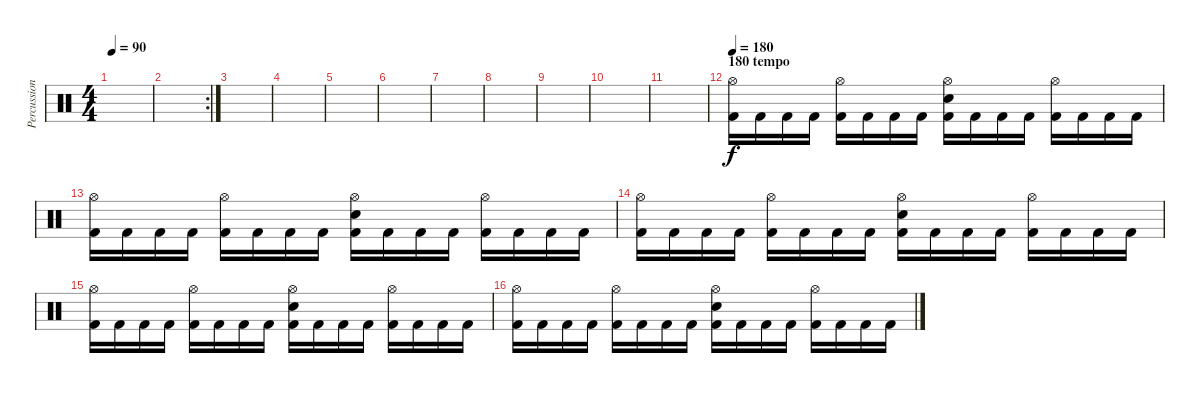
\track ("Percussion" "Percussion") {instrument percussion}
\staff {score}
\articulation defaults
\ts (4 4)
\tempo 90
\clef neutral
\ks c
|
\rc 2
|
|
|
|
|
|
|
|
|
|
\section ("" "180 tempo")
\tempo 180
("Hi-Hat (open)" "Kick (hit) 2").16 "Kick (hit) 2".16 "Kick (hit) 2".16 "Kick (hit) 2".16 ("Hi-Hat (open)" "Kick (hit) 2").16 "Kick (hit) 2".16 "Kick (hit) 2".16 "Kick (hit) 2".16 ("Hi-Hat (open)" "Electric Snare (hit)" "Kick (hit) 2").16 "Kick (hit) 2".16 "Kick (hit) 2".16 "Kick (hit) 2".16 ("Hi-Hat (open)" "Kick (hit) 2").16 "Kick (hit) 2".16 "Kick (hit) 2".16 "Kick (hit) 2".16 |
("Hi-Hat (open)" "Kick (hit) 2").16 "Kick (hit) 2".16 "Kick (hit) 2".16 "Kick (hit) 2".16 ("Hi-Hat (open)" "Kick (hit) 2").16 "Kick (hit) 2".16 "Kick (hit) 2".16 "Kick (hit) 2".16 ("Hi-Hat (open)" "Electric Snare (hit)" "Kick (hit) 2").16 "Kick (hit) 2".16 "Kick (hit) 2".16 "Kick (hit) 2".16 ("Hi-Hat (open)" "Kick (hit) 2").16 "Kick (hit) 2".16 "Kick (hit) 2".16 "Kick (hit) 2".16 |
("Hi-Hat (open)" "Kick (hit) 2").16 "Kick (hit) 2".16 "Kick (hit) 2".16 "Kick (hit) 2".16 ("Hi-Hat (open)" "Kick (hit) 2").16 "Kick (hit) 2".16 "Kick (hit) 2".16 "Kick (hit) 2".16 ("Hi-Hat (open)" "Electric Snare (hit)" "Kick (hit) 2").16 "Kick (hit) 2".16 "Kick (hit) 2".16 "Kick (hit) 2".16 ("Hi-Hat (open)" "Kick (hit) 2").16 "Kick (hit) 2".16 "Kick (hit) 2".16 "Kick (hit) 2".16 |
("Hi-Hat (open)" "Kick (hit) 2").16 "Kick (hit) 2".16 "Kick (hit) 2".16 "Kick (hit) 2".16 ("Hi-Hat (open)" "Kick (hit) 2").16 "Kick (hit) 2".16 "Kick (hit) 2".16 "Kick (hit) 2".16 ("Hi-Hat (open)" "Electric Snare (hit)" "Kick (hit) 2").16 "Kick (hit) 2".16 "Kick (hit) 2".16 "Kick (hit) 2".16 ("Hi-Hat (open)" "Kick (hit) 2").16 "Kick (hit) 2".16 "Kick (hit) 2".16 "Kick (hit) 2".16 |
("Hi-Hat (open)" "Kick (hit) 2").16 "Kick (hit) 2".16 "Kick (hit) 2".16 "Kick (hit) 2".16 ("Hi-Hat (open)" "Kick (hit) 2").16 "Kick (hit) 2".16 "Kick (hit) 2".16 "Kick (hit) 2".16 ("Hi-Hat (open)" "Electric Snare (hit)" "Kick (hit) 2").16 "Kick (hit) 2".16 "Kick (hit) 2".16 "Kick (hit) 2".16 ("Hi-Hat (open)" "Kick (hit) 2").16 "Kick (hit) 2".16 "Kick (hit) 2".16 "Kick (hit) 2".16
